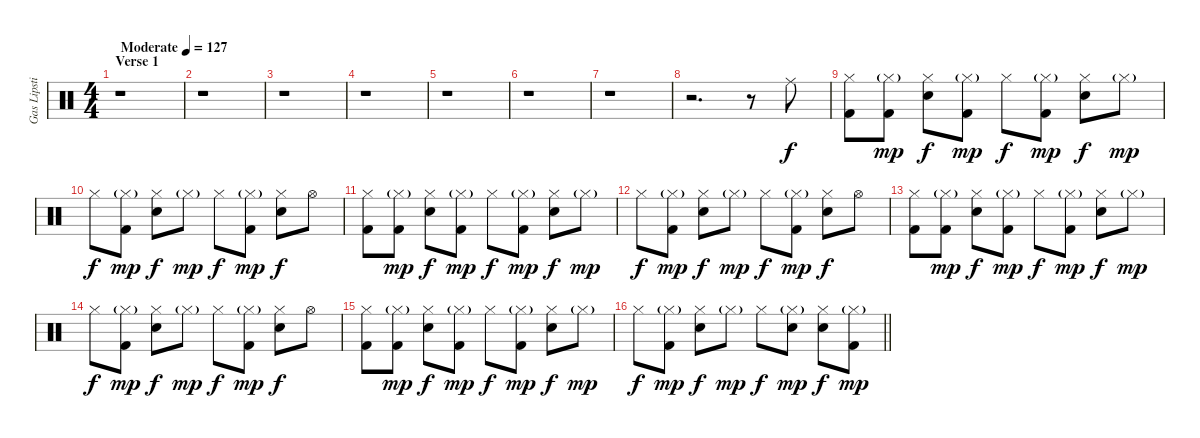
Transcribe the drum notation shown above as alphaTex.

\track ("Gas Lipstick (Drums)" "Gas Lipsti") {instrument percussion}
\staff {score}
\articulation defaults
\ts (4 4)
\section ("" "Verse 1")
\tempo (127 "Moderate")
\clef neutral
\ks c
r.1{dy f} |
r.1 |
r.1 |
r.1 |
r.1 |
r.1 |
r.1 |
r.2{d} r.8 "Ride (middle)".8 |
("Hi-Hat (closed)" "Kick (hit) 2").8 ("Hi-Hat (closed)"{g} "Kick (hit) 2").8{dy mp} ("Hi-Hat (closed)" "Snare (hit) 2").8{dy f} ("Hi-Hat (closed)"{g} "Kick (hit) 2").8{dy mp} "Hi-Hat (closed)".8{dy f} ("Hi-Hat (closed)"{g} "Kick (hit) 2").8{dy mp} ("Hi-Hat (closed)" "Snare (hit) 2").8{dy f} "Hi-Hat (closed)"{g}.8{dy mp} |
"Hi-Hat (closed)".8{dy f} ("Hi-Hat (closed)"{g} "Kick (hit) 2").8{dy mp} ("Hi-Hat (closed)" "Snare (hit) 2").8{dy f} "Hi-Hat (closed)"{g}.8{dy mp} "Hi-Hat (closed)".8{dy f} ("Hi-Hat (closed)"{g} "Kick (hit) 2").8{dy mp} ("Hi-Hat (closed)" "Snare (hit) 2").8{dy f} "Hi-Hat (open)".8 |
("Hi-Hat (closed)" "Kick (hit) 2").8 ("Hi-Hat (closed)"{g} "Kick (hit) 2").8{dy mp} ("Hi-Hat (closed)" "Snare (hit) 2").8{dy f} ("Hi-Hat (closed)"{g} "Kick (hit) 2").8{dy mp} "Hi-Hat (closed)".8{dy f} ("Hi-Hat (closed)"{g} "Kick (hit) 2").8{dy mp} ("Hi-Hat (closed)" "Snare (hit) 2").8{dy f} "Hi-Hat (closed)"{g}.8{dy mp} |
"Hi-Hat (closed)".8{dy f} ("Hi-Hat (closed)"{g} "Kick (hit) 2").8{dy mp} ("Hi-Hat (closed)" "Snare (hit) 2").8{dy f} "Hi-Hat (closed)"{g}.8{dy mp} "Hi-Hat (closed)".8{dy f} ("Hi-Hat (closed)"{g} "Kick (hit) 2").8{dy mp} ("Hi-Hat (closed)" "Snare (hit) 2").8{dy f} "Hi-Hat (open)".8 |
("Hi-Hat (closed)" "Kick (hit) 2").8 ("Hi-Hat (closed)"{g} "Kick (hit) 2").8{dy mp} ("Hi-Hat (closed)" "Snare (hit) 2").8{dy f} ("Hi-Hat (closed)"{g} "Kick (hit) 2").8{dy mp} "Hi-Hat (closed)".8{dy f} ("Hi-Hat (closed)"{g} "Kick (hit) 2").8{dy mp} ("Hi-Hat (closed)" "Snare (hit) 2").8{dy f} "Hi-Hat (closed)"{g}.8{dy mp} |
"Hi-Hat (closed)".8{dy f} ("Hi-Hat (closed)"{g} "Kick (hit) 2").8{dy mp} ("Hi-Hat (closed)" "Snare (hit) 2").8{dy f} "Hi-Hat (closed)"{g}.8{dy mp} "Hi-Hat (closed)".8{dy f} ("Hi-Hat (closed)"{g} "Kick (hit) 2").8{dy mp} ("Hi-Hat (closed)" "Snare (hit) 2").8{dy f} "Hi-Hat (open)".8 |
("Hi-Hat (closed)" "Kick (hit) 2").8 ("Hi-Hat (closed)"{g} "Kick (hit) 2").8{dy mp} ("Hi-Hat (closed)" "Snare (hit) 2").8{dy f} ("Hi-Hat (closed)"{g} "Kick (hit) 2").8{dy mp} "Hi-Hat (closed)".8{dy f} ("Hi-Hat (closed)"{g} "Kick (hit) 2").8{dy mp} ("Hi-Hat (closed)" "Snare (hit) 2").8{dy f} "Hi-Hat (closed)"{g}.8{dy mp} |
\barLineRight lightlight "Hi-Hat (closed)".8{dy f}
("Hi-Hat (closed)"{g} "Kick (hit) 2").8{dy mp} ("Hi-Hat (closed)" "Snare (hit) 2").8{dy f} "Hi-Hat (closed)"{g}.8{dy mp} "Hi-Hat (closed)".8{dy f} ("Hi-Hat (closed)"{g} "Snare (hit) 2").8{dy mp} ("Hi-Hat (closed)" "Snare (hit) 2").8{dy f} ("Hi-Hat (closed)"{g} "Kick (hit) 2").8{dy mp}
